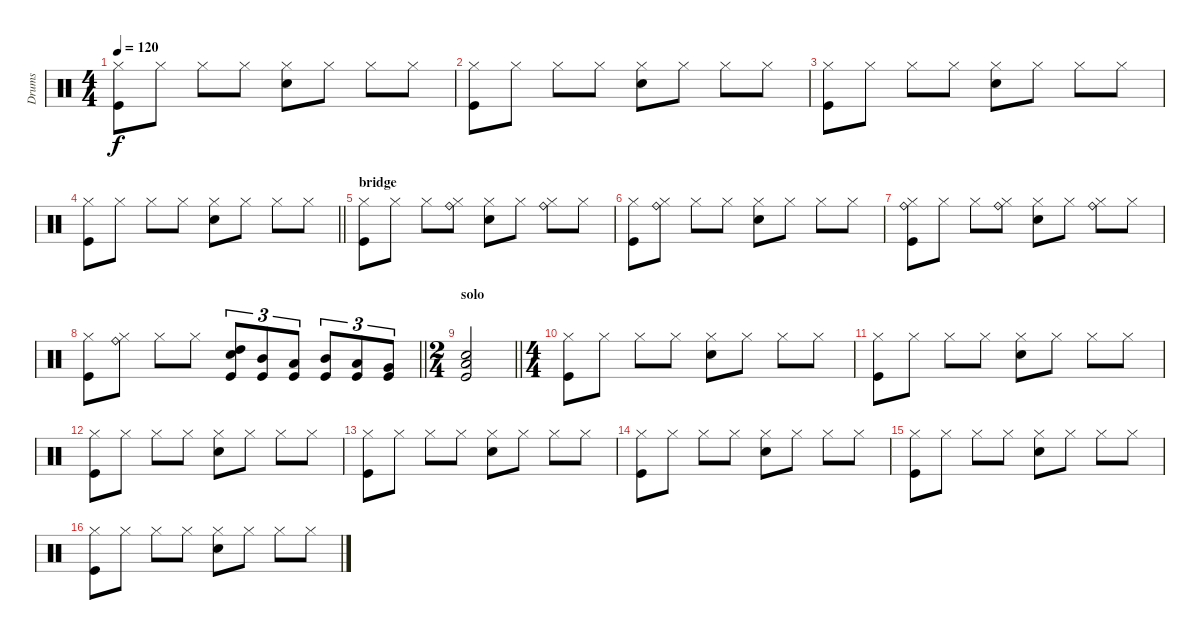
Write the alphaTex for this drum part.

\track ("Drums" "Drums") {instrument percussion}
\staff {score}
\articulation defaults
\ts (4 4)
\tempo 120
\clef neutral
\ks c
("Hi-Hat (closed)" "Kick (hit)").8{dy f} "Hi-Hat (closed)".8 "Hi-Hat (closed)".8 "Hi-Hat (closed)".8 ("Hi-Hat (closed)" "Snare (hit) 2").8 "Hi-Hat (closed)".8 "Hi-Hat (closed)".8 "Hi-Hat (closed)".8 |
("Hi-Hat (closed)" "Kick (hit)").8 "Hi-Hat (closed)".8 "Hi-Hat (closed)".8 "Hi-Hat (closed)".8 ("Hi-Hat (closed)" "Snare (hit) 2").8 "Hi-Hat (closed)".8 "Hi-Hat (closed)".8 "Hi-Hat (closed)".8 |
("Hi-Hat (closed)" "Kick (hit)").8 "Hi-Hat (closed)".8 "Hi-Hat (closed)".8 "Hi-Hat (closed)".8 ("Hi-Hat (closed)" "Snare (hit) 2").8 "Hi-Hat (closed)".8 "Hi-Hat (closed)".8 "Hi-Hat (closed)".8 |
\barLineRight lightlight
("Hi-Hat (closed)" "Kick (hit)").8 "Hi-Hat (closed)".8 "Hi-Hat (closed)".8 "Hi-Hat (closed)".8 ("Hi-Hat (closed)" "Snare (hit) 2").8 "Hi-Hat (closed)".8 "Hi-Hat (closed)".8 "Hi-Hat (closed)".8 |
\section ("" "bridge")
("Hi-Hat (closed)" "Kick (hit)").8 "Hi-Hat (closed)".8 "Hi-Hat (closed)".8 ("Ride (bell)" "Hi-Hat (closed)").8 ("Hi-Hat (closed)" "Snare (hit) 2").8 "Hi-Hat (closed)".8 ("Ride (bell)" "Hi-Hat (closed)").8 "Hi-Hat (closed)".8 |
("Hi-Hat (closed)" "Kick (hit)").8 ("Ride (bell)" "Hi-Hat (closed)").8 "Hi-Hat (closed)".8 "Hi-Hat (closed)".8 ("Hi-Hat (closed)" "Snare (hit) 2").8 "Hi-Hat (closed)".8 "Hi-Hat (closed)".8 "Hi-Hat (closed)".8 |
("Ride (bell)" "Hi-Hat (closed)" "Kick (hit)").8 "Hi-Hat (closed)".8 "Hi-Hat (closed)".8 ("Ride (bell)" "Hi-Hat (closed)").8 ("Hi-Hat (closed)" "Snare (hit) 2").8 "Hi-Hat (closed)".8 ("Ride (bell)" "Hi-Hat (closed)").8 "Hi-Hat (closed)".8 |
\barLineRight lightlight
("Hi-Hat (closed)" "Kick (hit)").8 ("Ride (bell)" "Hi-Hat (closed)").8 "Hi-Hat (closed)".8 "Hi-Hat (closed)".8 ("High Tom (hit)" "Snare (hit) 2" "Kick (hit)").8{tu (3 2)} ("Mid Tom (hit)" "Kick (hit)").8{tu (3 2)} ("Low Tom (hit)" "Kick (hit)").8{tu (3 2)} ("Mid Tom (hit)" "Kick (hit)").8{tu (3 2)} ("Low Tom (hit)" "Kick (hit)").8{tu (3 2)} ("Very Low Tom (hit)" "Kick (hit)").8{tu (3 2)} |
\ts (2 4)
\section ("" "solo")
\barLineRight lightlight
("Low Tom (hit)" "Snare (hit) 2" "Kick (hit)").2 |
\ts (4 4)
("Hi-Hat (closed)" "Kick (hit)").8 "Hi-Hat (closed)".8 "Hi-Hat (closed)".8 "Hi-Hat (closed)".8 ("Hi-Hat (closed)" "Snare (hit) 2").8 "Hi-Hat (closed)".8 "Hi-Hat (closed)".8 "Hi-Hat (closed)".8 |
("Hi-Hat (closed)" "Kick (hit)").8 "Hi-Hat (closed)".8 "Hi-Hat (closed)".8 "Hi-Hat (closed)".8 ("Hi-Hat (closed)" "Snare (hit) 2").8 "Hi-Hat (closed)".8 "Hi-Hat (closed)".8 "Hi-Hat (closed)".8 |
("Hi-Hat (closed)" "Kick (hit)").8 "Hi-Hat (closed)".8 "Hi-Hat (closed)".8 "Hi-Hat (closed)".8 ("Hi-Hat (closed)" "Snare (hit) 2").8 "Hi-Hat (closed)".8 "Hi-Hat (closed)".8 "Hi-Hat (closed)".8 |
("Hi-Hat (closed)" "Kick (hit)").8 "Hi-Hat (closed)".8 "Hi-Hat (closed)".8 "Hi-Hat (closed)".8 ("Hi-Hat (closed)" "Snare (hit) 2").8 "Hi-Hat (closed)".8 "Hi-Hat (closed)".8 "Hi-Hat (closed)".8 |
("Hi-Hat (closed)" "Kick (hit)").8 "Hi-Hat (closed)".8 "Hi-Hat (closed)".8 "Hi-Hat (closed)".8 ("Hi-Hat (closed)" "Snare (hit) 2").8 "Hi-Hat (closed)".8 "Hi-Hat (closed)".8 "Hi-Hat (closed)".8 |
("Hi-Hat (closed)" "Kick (hit)").8 "Hi-Hat (closed)".8 "Hi-Hat (closed)".8 "Hi-Hat (closed)".8 ("Hi-Hat (closed)" "Snare (hit) 2").8 "Hi-Hat (closed)".8 "Hi-Hat (closed)".8 "Hi-Hat (closed)".8 |
("Hi-Hat (closed)" "Kick (hit)").8 "Hi-Hat (closed)".8 "Hi-Hat (closed)".8 "Hi-Hat (closed)".8 ("Hi-Hat (closed)" "Snare (hit) 2").8 "Hi-Hat (closed)".8 "Hi-Hat (closed)".8 "Hi-Hat (closed)".8
